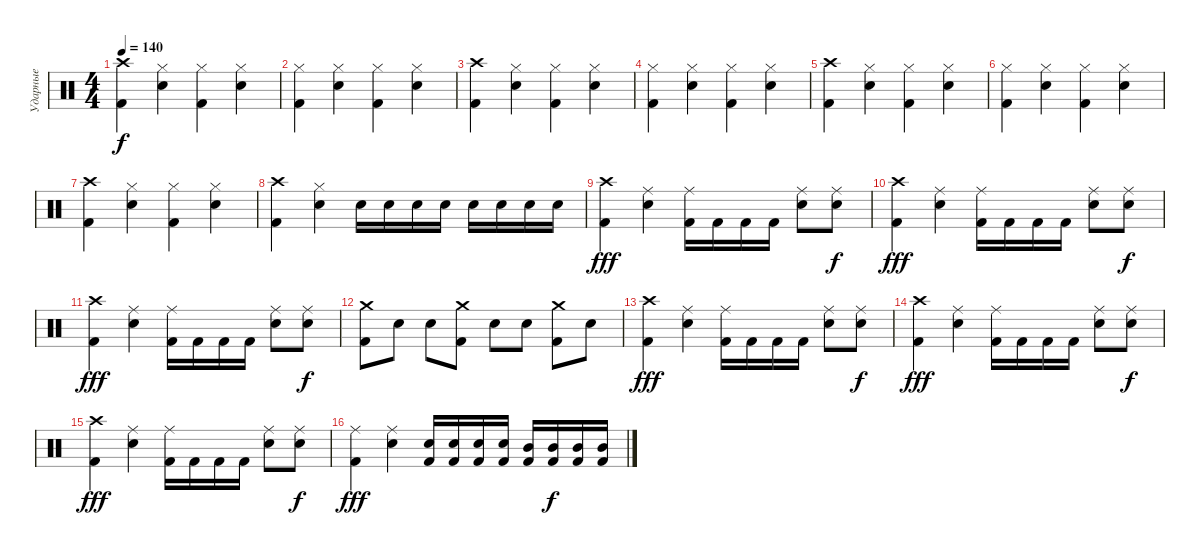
\track ("Ударные" "Ударные") {instrument percussion}
\staff {score}
\articulation defaults
\ts (4 4)
\tempo 140
\clef neutral
\ks c
("Crash high (hit)" "Kick (hit) 2").4{dy f} ("Hi-Hat (closed)" "Snare (hit) 2").4 ("Hi-Hat (closed)" "Kick (hit) 2").4 ("Hi-Hat (closed)" "Snare (hit) 2").4 |
("Hi-Hat (closed)" "Kick (hit) 2").4 ("Hi-Hat (closed)" "Snare (hit) 2").4 ("Hi-Hat (closed)" "Kick (hit) 2").4 ("Hi-Hat (closed)" "Snare (hit) 2").4 |
("Crash high (hit)" "Kick (hit) 2").4 ("Hi-Hat (closed)" "Snare (hit) 2").4 ("Hi-Hat (closed)" "Kick (hit) 2").4 ("Hi-Hat (closed)" "Snare (hit) 2").4 |
("Hi-Hat (closed)" "Kick (hit) 2").4 ("Hi-Hat (closed)" "Snare (hit) 2").4 ("Hi-Hat (closed)" "Kick (hit) 2").4 ("Hi-Hat (closed)" "Snare (hit) 2").4 |
("Crash high (hit)" "Kick (hit) 2").4 ("Hi-Hat (closed)" "Snare (hit) 2").4 ("Hi-Hat (closed)" "Kick (hit) 2").4 ("Hi-Hat (closed)" "Snare (hit) 2").4 |
("Hi-Hat (closed)" "Kick (hit) 2").4 ("Hi-Hat (closed)" "Snare (hit) 2").4 ("Hi-Hat (closed)" "Kick (hit) 2").4 ("Hi-Hat (closed)" "Snare (hit) 2").4 |
("Crash high (hit)" "Kick (hit) 2").4 ("Hi-Hat (closed)" "Snare (hit) 2").4 ("Hi-Hat (closed)" "Kick (hit) 2").4 ("Hi-Hat (closed)" "Snare (hit) 2").4 |
("Crash high (hit)" "Kick (hit) 2").4 ("Hi-Hat (closed)" "Snare (hit) 2").4 "Snare (hit) 2".16 "Snare (hit) 2".16 "Snare (hit) 2".16 "Snare (hit) 2".16 "Snare (hit) 2".16 "Snare (hit) 2".16 "Snare (hit) 2".16 "Snare (hit) 2".16 |
("Kick (hit) 2" "Crash high (hit)").4{dy fff} ("Snare (hit) 2" "Ride (middle)").4 ("Kick (hit) 2" "Ride (middle)").16 "Kick (hit) 2".16 "Kick (hit) 2".16 "Kick (hit) 2".16 ("Snare (hit) 2" "Ride (middle)").8 ("Snare (hit) 2" "Ride (middle)").8{dy f} |
("Kick (hit) 2" "Crash high (hit)").4{dy fff} ("Snare (hit) 2" "Ride (middle)").4 ("Kick (hit) 2" "Ride (middle)").16 "Kick (hit) 2".16 "Kick (hit) 2".16 "Kick (hit) 2".16 ("Snare (hit) 2" "Ride (middle)").8 ("Snare (hit) 2" "Ride (middle)").8{dy f} |
("Kick (hit) 2" "Crash high (hit)").4{dy fff} ("Snare (hit) 2" "Ride (middle)").4 ("Kick (hit) 2" "Ride (middle)").16 "Kick (hit) 2".16 "Kick (hit) 2".16 "Kick (hit) 2".16 ("Snare (hit) 2" "Ride (middle)").8 ("Snare (hit) 2" "Ride (middle)").8{dy f} |
("Kick (hit) 2" "Crash medium (hit)").8 "Snare (hit) 2".8 "Snare (hit) 2".8 ("Kick (hit) 2" "Crash medium (hit)").8 "Snare (hit) 2".8 "Snare (hit) 2".8 ("Kick (hit) 2" "Crash medium (hit)").8 "Snare (hit) 2".8 |
("Kick (hit) 2" "Crash high (hit)").4{dy fff} ("Snare (hit) 2" "Ride (middle)").4 ("Kick (hit) 2" "Ride (middle)").16 "Kick (hit) 2".16 "Kick (hit) 2".16 "Kick (hit) 2".16 ("Snare (hit) 2" "Ride (middle)").8 ("Snare (hit) 2" "Ride (middle)").8{dy f} |
("Kick (hit) 2" "Crash high (hit)").4{dy fff} ("Snare (hit) 2" "Ride (middle)").4 ("Kick (hit) 2" "Ride (middle)").16 "Kick (hit) 2".16 "Kick (hit) 2".16 "Kick (hit) 2".16 ("Snare (hit) 2" "Ride (middle)").8 ("Snare (hit) 2" "Ride (middle)").8{dy f} |
("Kick (hit) 2" "Crash high (hit)").4{dy fff} ("Snare (hit) 2" "Ride (middle)").4 ("Kick (hit) 2" "Ride (middle)").16 "Kick (hit) 2".16 "Kick (hit) 2".16 "Kick (hit) 2".16 ("Snare (hit) 2" "Ride (middle)").8 ("Snare (hit) 2" "Ride (middle)").8{dy f} |
("Kick (hit) 2" "Ride (middle)").4{dy fff} ("Electric Snare (hit)" "Ride (middle)").4 ("Kick (hit) 2" "Snare (hit) 2").16 ("Kick (hit) 2" "Snare (hit) 2").16 ("Kick (hit) 2" "Snare (hit) 2").16 ("Kick (hit) 2" "Snare (hit) 2").16 ("Kick (hit) 2" "Mid Tom (hit)").16 ("Kick (hit) 2" "Mid Tom (hit)").16{dy f} ("Kick (hit) 2" "Mid Tom (hit)").16 ("Kick (hit) 2" "Mid Tom (hit)").16
